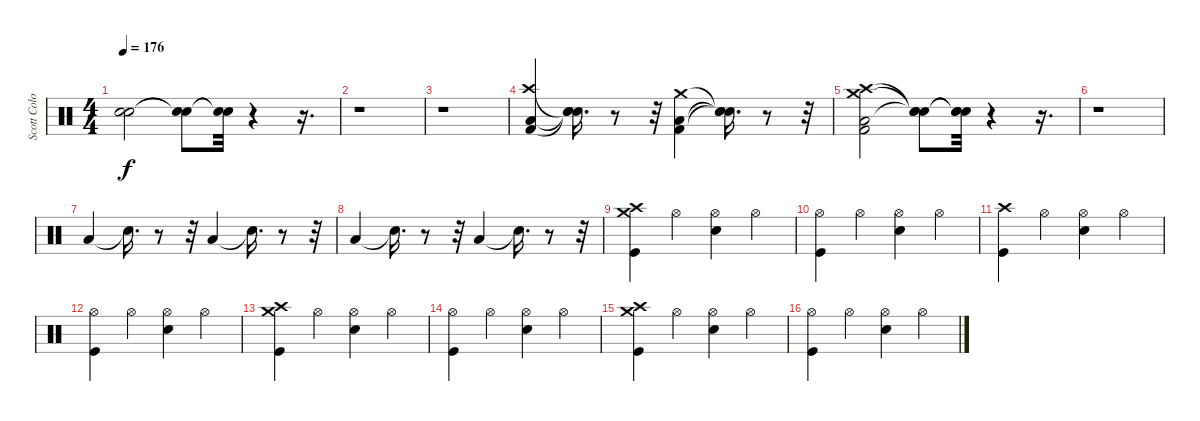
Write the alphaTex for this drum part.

\track ("Scott Colombus" "Scott Colo") {instrument percussion}
\staff {score}
\articulation defaults
\ts (4 4)
\tempo 176
\clef neutral
\ks c
("Snare (hit)"{t} "Snare (hit)"{t}).2{dy f} ("Snare (hit)"{t} "Snare (hit)"{t}).8 ("Snare (hit)"{t} "Snare (hit)"{t}).32 r.4 r.16{d} |
r.1 |
r.1 |
("Low Floor Tom (hit)" "Crash high (hit)" "Kick (hit) 2").4 ("Snare (hit)"{t} "Snare (hit)"{t} "Snare (hit)"{t}).16{d} r.8 r.32 ("Low Floor Tom (hit)" "Crash medium (hit)" "Kick (hit) 2").4 ("Snare (hit)"{t} "Snare (hit)"{t} "Snare (hit)"{t}).16{d} r.8 r.32 |
("Low Floor Tom (hit)" "Crash high (hit)" "Crash medium (hit)" "Kick (hit) 2").2 ("Snare (hit)"{t} "Snare (hit)"{t} "Snare (hit)"{t}).8 ("Snare (hit)"{t} "Snare (hit)"{t} "Snare (hit)"{t}).32 r.4 r.16{d} |
r.1 |
"Low Tom (hit)".4 "Snare (hit)"{t}.16{d} r.8 r.32 "Low Tom (hit)".4 "Snare (hit)"{t}.16{d} r.8 r.32 |
"Low Tom (hit)".4 "Snare (hit)"{t}.16{d} r.8 r.32 "Low Tom (hit)".4 "Snare (hit)"{t}.16{d} r.8 r.32 |
("Crash medium (hit)" "Crash high (hit)" "Kick (hit)").4 "Hi-Hat (open)".4 ("Hi-Hat (open)" "Snare (hit) 2").4 "Hi-Hat (open)".4 |
("Hi-Hat (open)" "Kick (hit)").4 "Hi-Hat (open)".4 ("Hi-Hat (open)" "Snare (hit) 2").4 "Hi-Hat (open)".4 |
("Crash high (hit)" "Kick (hit)").4 "Hi-Hat (open)".4 ("Hi-Hat (open)" "Snare (hit) 2").4 "Hi-Hat (open)".4 |
("Hi-Hat (open)" "Kick (hit)").4 "Hi-Hat (open)".4 ("Hi-Hat (open)" "Snare (hit) 2").4 "Hi-Hat (open)".4 |
("Crash medium (hit)" "Crash high (hit)" "Kick (hit)").4 "Hi-Hat (open)".4 ("Hi-Hat (open)" "Snare (hit) 2").4 "Hi-Hat (open)".4 |
("Hi-Hat (open)" "Kick (hit)").4 "Hi-Hat (open)".4 ("Hi-Hat (open)" "Snare (hit) 2").4 "Hi-Hat (open)".4 |
("Crash medium (hit)" "Crash high (hit)" "Kick (hit)").4 "Hi-Hat (open)".4 ("Hi-Hat (open)" "Snare (hit) 2").4 "Hi-Hat (open)".4 |
("Hi-Hat (open)" "Kick (hit)").4 "Hi-Hat (open)".4 ("Hi-Hat (open)" "Snare (hit) 2").4 "Hi-Hat (open)".4
